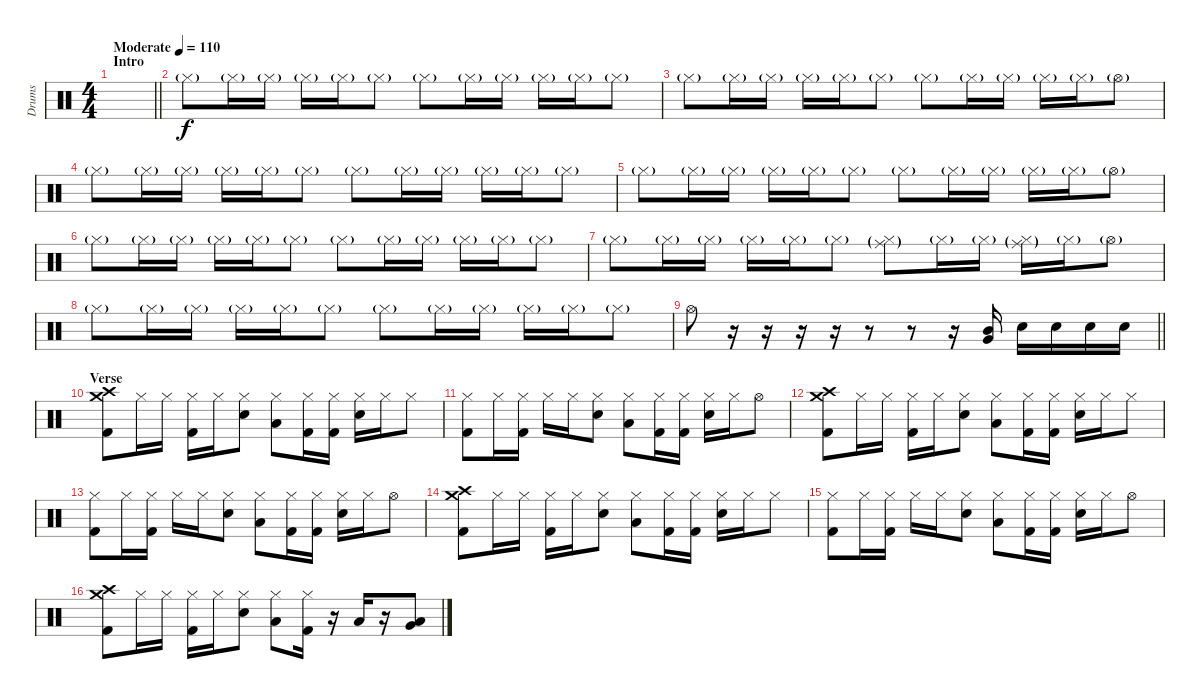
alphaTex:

\track ("Drums" "Drums") {instrument percussion}
\staff {score}
\articulation defaults
\ts (4 4)
\section ("" "Intro")
\tempo (110 "Moderate")
\clef neutral
\barLineRight lightlight
\ks c
|
"Hi-Hat (closed)"{g}.8 "Hi-Hat (closed)"{g}.16 "Hi-Hat (closed)"{g}.16 "Hi-Hat (closed)"{g}.16 "Hi-Hat (closed)"{g}.16 "Hi-Hat (closed)"{g}.8 "Hi-Hat (closed)"{g}.8 "Hi-Hat (closed)"{g}.16 "Hi-Hat (closed)"{g}.16 "Hi-Hat (closed)"{g}.16 "Hi-Hat (closed)"{g}.16 "Hi-Hat (closed)"{g}.8 |
"Hi-Hat (closed)"{g}.8 "Hi-Hat (closed)"{g}.16 "Hi-Hat (closed)"{g}.16 "Hi-Hat (closed)"{g}.16 "Hi-Hat (closed)"{g}.16 "Hi-Hat (closed)"{g}.8 "Hi-Hat (closed)"{g}.8 "Hi-Hat (closed)"{g}.16 "Hi-Hat (closed)"{g}.16 "Hi-Hat (closed)"{g}.16 "Hi-Hat (closed)"{g}.16 "Hi-Hat (open)"{g}.8 |
"Hi-Hat (closed)"{g}.8 "Hi-Hat (closed)"{g}.16 "Hi-Hat (closed)"{g}.16 "Hi-Hat (closed)"{g}.16 "Hi-Hat (closed)"{g}.16 "Hi-Hat (closed)"{g}.8 "Hi-Hat (closed)"{g}.8 "Hi-Hat (closed)"{g}.16 "Hi-Hat (closed)"{g}.16 "Hi-Hat (closed)"{g}.16 "Hi-Hat (closed)"{g}.16 "Hi-Hat (closed)"{g}.8 |
"Hi-Hat (closed)"{g}.8 "Hi-Hat (closed)"{g}.16 "Hi-Hat (closed)"{g}.16 "Hi-Hat (closed)"{g}.16 "Hi-Hat (closed)"{g}.16 "Hi-Hat (closed)"{g}.8 "Hi-Hat (closed)"{g}.8 "Hi-Hat (closed)"{g}.16 "Hi-Hat (closed)"{g}.16 "Hi-Hat (closed)"{g}.16 "Hi-Hat (closed)"{g}.16 "Hi-Hat (open)"{g}.8 |
"Hi-Hat (closed)"{g}.8 "Hi-Hat (closed)"{g}.16 "Hi-Hat (closed)"{g}.16 "Hi-Hat (closed)"{g}.16 "Hi-Hat (closed)"{g}.16 "Hi-Hat (closed)"{g}.8 "Hi-Hat (closed)"{g}.8 "Hi-Hat (closed)"{g}.16 "Hi-Hat (closed)"{g}.16 "Hi-Hat (closed)"{g}.16 "Hi-Hat (closed)"{g}.16 "Hi-Hat (closed)"{g}.8 |
"Hi-Hat (closed)"{g}.8 "Hi-Hat (closed)"{g}.16 "Hi-Hat (closed)"{g}.16 "Hi-Hat (closed)"{g}.16 "Hi-Hat (closed)"{g}.16 "Hi-Hat (closed)"{g}.8 ("Hi-Hat (closed)"{g} "Ride (middle)"{g}).8 "Hi-Hat (closed)"{g}.16 "Hi-Hat (closed)"{g}.16 ("Hi-Hat (closed)"{g} "Ride (middle)"{g}).16 "Hi-Hat (closed)"{g}.16 "Hi-Hat (open)"{g}.8 |
"Hi-Hat (closed)"{g}.8 "Hi-Hat (closed)"{g}.16 "Hi-Hat (closed)"{g}.16 "Hi-Hat (closed)"{g}.16 "Hi-Hat (closed)"{g}.16 "Hi-Hat (closed)"{g}.8 "Hi-Hat (closed)"{g}.8 "Hi-Hat (closed)"{g}.16 "Hi-Hat (closed)"{g}.16 "Hi-Hat (closed)"{g}.16 "Hi-Hat (closed)"{g}.16 "Hi-Hat (closed)"{g}.8 |
\barLineRight lightlight "Hi-Hat (open)".8{dy f}
r.16 r.16 r.16 r.16 r.8 r.8 r.16 ("Very Low Tom (hit)" "Mid Tom (hit)").16 "Snare (hit) 2".16 "Snare (hit) 2".16 "Snare (hit) 2".16 "Snare (hit) 2".16 |
\section ("" "Verse")
("Crash medium (hit)" "Crash high (hit)" "Kick (hit) 2").8 "Hi-Hat (closed)".16 "Hi-Hat (closed)".16 ("Hi-Hat (closed)" "Kick (hit) 2").16 "Hi-Hat (closed)".16 ("Hi-Hat (closed)" "Snare (hit) 2").8 ("Hi-Hat (closed)" "Low Tom (hit)").8 ("Hi-Hat (closed)" "Kick (hit) 2").16 ("Hi-Hat (closed)" "Kick (hit) 2").16 ("Hi-Hat (closed)" "Snare (hit) 2").16 "Hi-Hat (closed)".16 "Hi-Hat (closed)".8 |
("Hi-Hat (closed)" "Kick (hit) 2").8 "Hi-Hat (closed)".16 ("Hi-Hat (closed)" "Kick (hit) 2").16 "Hi-Hat (closed)".16 "Hi-Hat (closed)".16 ("Hi-Hat (closed)" "Snare (hit) 2").8 ("Hi-Hat (closed)" "Low Tom (hit)").8 ("Hi-Hat (closed)" "Kick (hit) 2").16 ("Hi-Hat (closed)" "Kick (hit) 2").16 ("Hi-Hat (closed)" "Snare (hit) 2").16 "Hi-Hat (closed)".16 "Hi-Hat (open)".8 |
("Crash medium (hit)" "Crash high (hit)" "Kick (hit) 2").8 "Hi-Hat (closed)".16 "Hi-Hat (closed)".16 ("Hi-Hat (closed)" "Kick (hit) 2").16 "Hi-Hat (closed)".16 ("Hi-Hat (closed)" "Snare (hit) 2").8 ("Hi-Hat (closed)" "Low Tom (hit)").8 ("Hi-Hat (closed)" "Kick (hit) 2").16 ("Hi-Hat (closed)" "Kick (hit) 2").16 ("Hi-Hat (closed)" "Snare (hit) 2").16 "Hi-Hat (closed)".16 "Hi-Hat (closed)".8 |
("Hi-Hat (closed)" "Kick (hit) 2").8 "Hi-Hat (closed)".16 ("Hi-Hat (closed)" "Kick (hit) 2").16 "Hi-Hat (closed)".16 "Hi-Hat (closed)".16 ("Hi-Hat (closed)" "Snare (hit) 2").8 ("Hi-Hat (closed)" "Low Tom (hit)").8 ("Hi-Hat (closed)" "Kick (hit) 2").16 ("Hi-Hat (closed)" "Kick (hit) 2").16 ("Hi-Hat (closed)" "Snare (hit) 2").16 "Hi-Hat (closed)".16 "Hi-Hat (open)".8 |
("Crash medium (hit)" "Crash high (hit)" "Kick (hit) 2").8 "Hi-Hat (closed)".16 "Hi-Hat (closed)".16 ("Hi-Hat (closed)" "Kick (hit) 2").16 "Hi-Hat (closed)".16 ("Hi-Hat (closed)" "Snare (hit) 2").8 ("Hi-Hat (closed)" "Low Tom (hit)").8 ("Hi-Hat (closed)" "Kick (hit) 2").16 ("Hi-Hat (closed)" "Kick (hit) 2").16 ("Hi-Hat (closed)" "Snare (hit) 2").16 "Hi-Hat (closed)".16 "Hi-Hat (closed)".8 |
("Hi-Hat (closed)" "Kick (hit) 2").8 "Hi-Hat (closed)".16 ("Hi-Hat (closed)" "Kick (hit) 2").16 "Hi-Hat (closed)".16 "Hi-Hat (closed)".16 ("Hi-Hat (closed)" "Snare (hit) 2").8 ("Hi-Hat (closed)" "Low Tom (hit)").8 ("Hi-Hat (closed)" "Kick (hit) 2").16 ("Hi-Hat (closed)" "Kick (hit) 2").16 ("Hi-Hat (closed)" "Snare (hit) 2").16 "Hi-Hat (closed)".16 "Hi-Hat (open)".8 |
("Crash medium (hit)" "Crash high (hit)" "Kick (hit) 2").8 "Hi-Hat (closed)".16 "Hi-Hat (closed)".16 ("Hi-Hat (closed)" "Kick (hit) 2").16 "Hi-Hat (closed)".16 ("Hi-Hat (closed)" "Snare (hit) 2").8 ("Hi-Hat (closed)" "Low Tom (hit)").8 ("Hi-Hat (closed)" "Kick (hit) 2").16 r.16 "Low Tom (hit)".16 r.16 ("Very Low Tom (hit)" "Low Floor Tom (hit)").8
